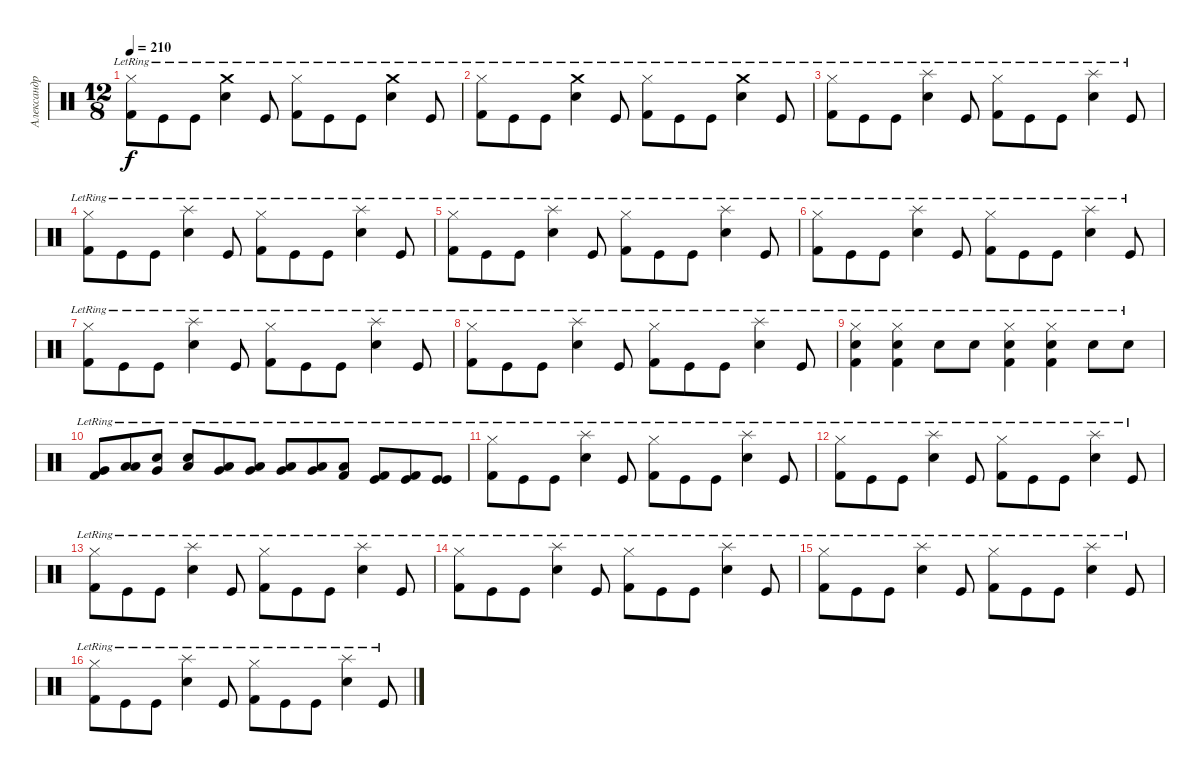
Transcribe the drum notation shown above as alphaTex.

\track ("Александр Манякин" "Александр ") {instrument percussion}
\staff {score}
\articulation defaults
\ts (12 8)
\tempo 210
\clef neutral
\ks c
("Hi-Hat (closed)"{lr} "Kick (hit) 2"{lr}).8{dy f} "Kick (hit)"{lr}.8 "Kick (hit)"{lr}.8 ("Crash medium (hit)"{lr} "Snare (hit) 2"{lr}).4 "Kick (hit)"{lr}.8 ("Hi-Hat (closed)"{lr} "Kick (hit) 2"{lr}).8 "Kick (hit)"{lr}.8 "Kick (hit)"{lr}.8 ("Crash medium (hit)"{lr} "Snare (hit) 2"{lr}).4 "Kick (hit)"{lr}.8 |
("Hi-Hat (closed)"{lr} "Kick (hit) 2"{lr}).8 "Kick (hit)"{lr}.8 "Kick (hit)"{lr}.8 ("Crash medium (hit)"{lr} "Snare (hit) 2"{lr}).4 "Kick (hit)"{lr}.8 ("Hi-Hat (closed)"{lr} "Kick (hit) 2"{lr}).8 "Kick (hit)"{lr}.8 "Kick (hit)"{lr}.8 ("Crash medium (hit)"{lr} "Snare (hit) 2"{lr}).4 "Kick (hit)"{lr}.8 |
("Hi-Hat (closed)"{lr} "Kick (hit) 2"{lr}).8 "Kick (hit)"{lr}.8 "Kick (hit)"{lr}.8 ("Splash (hit)"{lr} "Snare (hit) 2"{lr}).4 "Kick (hit)"{lr}.8 ("Hi-Hat (closed)"{lr} "Kick (hit) 2"{lr}).8 "Kick (hit)"{lr}.8 "Kick (hit)"{lr}.8 ("Splash (hit)"{lr} "Snare (hit) 2"{lr}).4 "Kick (hit)"{lr}.8 |
("Hi-Hat (closed)"{lr} "Kick (hit) 2"{lr}).8 "Kick (hit)"{lr}.8 "Kick (hit)"{lr}.8 ("Splash (hit)"{lr} "Snare (hit) 2"{lr}).4 "Kick (hit)"{lr}.8 ("Hi-Hat (closed)"{lr} "Kick (hit) 2"{lr}).8 "Kick (hit)"{lr}.8 "Kick (hit)"{lr}.8 ("Splash (hit)"{lr} "Snare (hit) 2"{lr}).4 "Kick (hit)"{lr}.8 |
("Hi-Hat (closed)"{lr} "Kick (hit) 2"{lr}).8 "Kick (hit)"{lr}.8 "Kick (hit)"{lr}.8 ("Splash (hit)"{lr} "Snare (hit) 2"{lr}).4 "Kick (hit)"{lr}.8 ("Hi-Hat (closed)"{lr} "Kick (hit) 2"{lr}).8 "Kick (hit)"{lr}.8 "Kick (hit)"{lr}.8 ("Splash (hit)"{lr} "Snare (hit) 2"{lr}).4 "Kick (hit)"{lr}.8 |
("Hi-Hat (closed)"{lr} "Kick (hit) 2"{lr}).8 "Kick (hit)"{lr}.8 "Kick (hit)"{lr}.8 ("Splash (hit)"{lr} "Snare (hit) 2"{lr}).4 "Kick (hit)"{lr}.8 ("Hi-Hat (closed)"{lr} "Kick (hit) 2"{lr}).8 "Kick (hit)"{lr}.8 "Kick (hit)"{lr}.8 ("Splash (hit)"{lr} "Snare (hit) 2"{lr}).4 "Kick (hit)"{lr}.8 |
("Hi-Hat (closed)"{lr} "Kick (hit) 2"{lr}).8 "Kick (hit)"{lr}.8 "Kick (hit)"{lr}.8 ("Splash (hit)"{lr} "Snare (hit) 2"{lr}).4 "Kick (hit)"{lr}.8 ("Hi-Hat (closed)"{lr} "Kick (hit) 2"{lr}).8 "Kick (hit)"{lr}.8 "Kick (hit)"{lr}.8 ("Splash (hit)"{lr} "Snare (hit) 2"{lr}).4 "Kick (hit)"{lr}.8 |
("Hi-Hat (closed)"{lr} "Kick (hit) 2"{lr}).8 "Kick (hit)"{lr}.8 "Kick (hit)"{lr}.8 ("Splash (hit)"{lr} "Snare (hit) 2"{lr}).4 "Kick (hit)"{lr}.8 ("Hi-Hat (closed)"{lr} "Kick (hit) 2"{lr}).8 "Kick (hit)"{lr}.8 "Kick (hit)"{lr}.8 ("Splash (hit)"{lr} "Snare (hit) 2"{lr}).4 "Kick (hit)"{lr}.8 |
("Kick (hit) 2"{lr} "Hi-Hat (closed)"{lr} "Snare (hit) 2"{lr}).4 ("Kick (hit) 2"{lr} "Hi-Hat (closed)"{lr} "Snare (hit) 2"{lr}).4 "Snare (hit) 2"{lr}.8 "Snare (hit) 2"{lr}.8 ("Kick (hit) 2"{lr} "Hi-Hat (closed)"{lr} "Snare (hit) 2"{lr}).4 ("Hi-Hat (closed)"{lr} "Snare (hit) 2"{lr} "Kick (hit) 2"{lr}).4 "Snare (hit) 2"{lr}.8 "Snare (hit) 2"{lr}.8 |
("Kick (hit) 2"{lr} "Very Low Tom (hit)"{lr}).8 ("Low Floor Tom (hit)"{lr} "Low Tom (hit)"{lr}).8 ("Very Low Tom (hit)"{lr} "Snare (hit) 2"{lr}).8 ("Low Tom (hit)"{lr} "Snare (hit) 2"{lr}).8 ("Very Low Tom (hit)"{lr} "Low Tom (hit)"{lr}).8 ("Very Low Tom (hit)"{lr} "Low Tom (hit)"{lr}).8 ("Low Floor Tom (hit)"{lr} "Very Low Tom (hit)"{lr}).8 ("Low Floor Tom (hit)"{lr} "Very Low Tom (hit)"{lr}).8 ("Kick (hit) 2"{lr} "Low Floor Tom (hit)"{lr}).8 ("Kick (hit)"{lr} "Kick (hit) 2"{lr}).8 ("Kick (hit) 2"{lr} "Kick (hit)"{lr}).8 ("Kick (hit)"{lr} "Kick (hit)"{lr}).8 |
("Hi-Hat (closed)"{lr} "Kick (hit) 2"{lr}).8 "Kick (hit)"{lr}.8 "Kick (hit)"{lr}.8 ("Splash (hit)"{lr} "Snare (hit) 2"{lr}).4 "Kick (hit)"{lr}.8 ("Hi-Hat (closed)"{lr} "Kick (hit) 2"{lr}).8 "Kick (hit)"{lr}.8 "Kick (hit)"{lr}.8 ("Splash (hit)"{lr} "Snare (hit) 2"{lr}).4 "Kick (hit)"{lr}.8 |
("Hi-Hat (closed)"{lr} "Kick (hit) 2"{lr}).8 "Kick (hit)"{lr}.8 "Kick (hit)"{lr}.8 ("Splash (hit)"{lr} "Snare (hit) 2"{lr}).4 "Kick (hit)"{lr}.8 ("Hi-Hat (closed)"{lr} "Kick (hit) 2"{lr}).8 "Kick (hit)"{lr}.8 "Kick (hit)"{lr}.8 ("Splash (hit)"{lr} "Snare (hit) 2"{lr}).4 "Kick (hit)"{lr}.8 |
("Hi-Hat (closed)"{lr} "Kick (hit) 2"{lr}).8 "Kick (hit)"{lr}.8 "Kick (hit)"{lr}.8 ("Splash (hit)"{lr} "Snare (hit) 2"{lr}).4 "Kick (hit)"{lr}.8 ("Hi-Hat (closed)"{lr} "Kick (hit) 2"{lr}).8 "Kick (hit)"{lr}.8 "Kick (hit)"{lr}.8 ("Splash (hit)"{lr} "Snare (hit) 2"{lr}).4 "Kick (hit)"{lr}.8 |
("Hi-Hat (closed)"{lr} "Kick (hit) 2"{lr}).8 "Kick (hit)"{lr}.8 "Kick (hit)"{lr}.8 ("Splash (hit)"{lr} "Snare (hit) 2"{lr}).4 "Kick (hit)"{lr}.8 ("Hi-Hat (closed)"{lr} "Kick (hit) 2"{lr}).8 "Kick (hit)"{lr}.8 "Kick (hit)"{lr}.8 ("Splash (hit)"{lr} "Snare (hit) 2"{lr}).4 "Kick (hit)"{lr}.8 |
("Hi-Hat (closed)"{lr} "Kick (hit) 2"{lr}).8 "Kick (hit)"{lr}.8 "Kick (hit)"{lr}.8 ("Splash (hit)"{lr} "Snare (hit) 2"{lr}).4 "Kick (hit)"{lr}.8 ("Hi-Hat (closed)"{lr} "Kick (hit) 2"{lr}).8 "Kick (hit)"{lr}.8 "Kick (hit)"{lr}.8 ("Splash (hit)"{lr} "Snare (hit) 2"{lr}).4 "Kick (hit)"{lr}.8 |
("Hi-Hat (closed)"{lr} "Kick (hit) 2"{lr}).8 "Kick (hit)"{lr}.8 "Kick (hit)"{lr}.8 ("Splash (hit)"{lr} "Snare (hit) 2"{lr}).4 "Kick (hit)"{lr}.8 ("Hi-Hat (closed)"{lr} "Kick (hit) 2"{lr}).8 "Kick (hit)"{lr}.8 "Kick (hit)"{lr}.8 ("Splash (hit)"{lr} "Snare (hit) 2"{lr}).4 "Kick (hit)"{lr}.8
